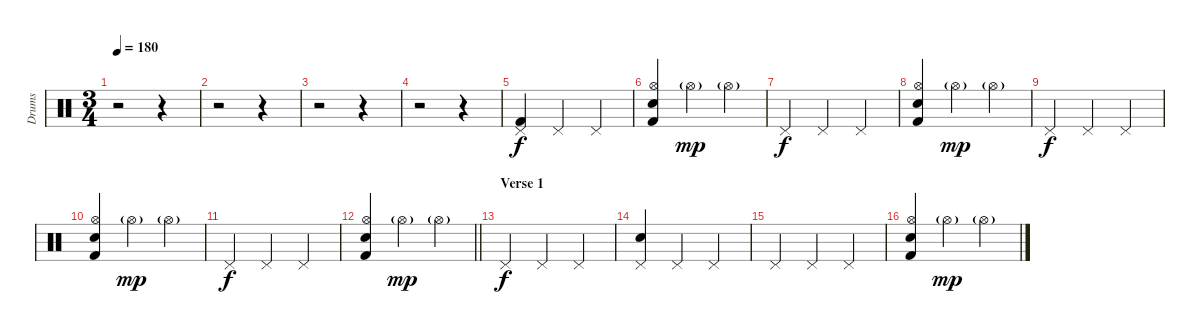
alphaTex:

\track ("Drums" "Drums") {instrument percussion}
\staff {score}
\articulation defaults
\ts (3 4)
\tempo 180
\clef neutral
\ks c
r.2{dy f} r.4 |
r.2 r.4 |
r.2 r.4 |
r.2 r.4 |
("Kick (hit) 2" "Pedal Hi-Hat (hit)").4 "Pedal Hi-Hat (hit)".4 "Pedal Hi-Hat (hit)".4 |
("Kick (hit) 2" "Hi-Hat (open)" "Electric Snare (hit)").4 "Hi-Hat (open)"{g}.4{dy mp} "Hi-Hat (open)"{g}.4 |
"Pedal Hi-Hat (hit)".4{dy f} "Pedal Hi-Hat (hit)".4 "Pedal Hi-Hat (hit)".4 |
("Kick (hit) 2" "Hi-Hat (open)" "Electric Snare (hit)").4 "Hi-Hat (open)"{g}.4{dy mp} "Hi-Hat (open)"{g}.4 |
"Pedal Hi-Hat (hit)".4{dy f} "Pedal Hi-Hat (hit)".4 "Pedal Hi-Hat (hit)".4 |
("Kick (hit) 2" "Hi-Hat (open)" "Electric Snare (hit)").4 "Hi-Hat (open)"{g}.4{dy mp} "Hi-Hat (open)"{g}.4 |
"Pedal Hi-Hat (hit)".4{dy f} "Pedal Hi-Hat (hit)".4 "Pedal Hi-Hat (hit)".4 |
\barLineRight lightlight
("Kick (hit) 2" "Hi-Hat (open)" "Electric Snare (hit)").4 "Hi-Hat (open)"{g}.4{dy mp} "Hi-Hat (open)"{g}.4 |
\section ("" "Verse 1")
"Pedal Hi-Hat (hit)".4{dy f} "Pedal Hi-Hat (hit)".4 "Pedal Hi-Hat (hit)".4 |
("Pedal Hi-Hat (hit)" "Electric Snare (hit)").4 "Pedal Hi-Hat (hit)".4 "Pedal Hi-Hat (hit)".4 |
"Pedal Hi-Hat (hit)".4 "Pedal Hi-Hat (hit)".4 "Pedal Hi-Hat (hit)".4 |
("Kick (hit) 2" "Hi-Hat (open)" "Electric Snare (hit)").4 "Hi-Hat (open)"{g}.4{dy mp} "Hi-Hat (open)"{g}.4
